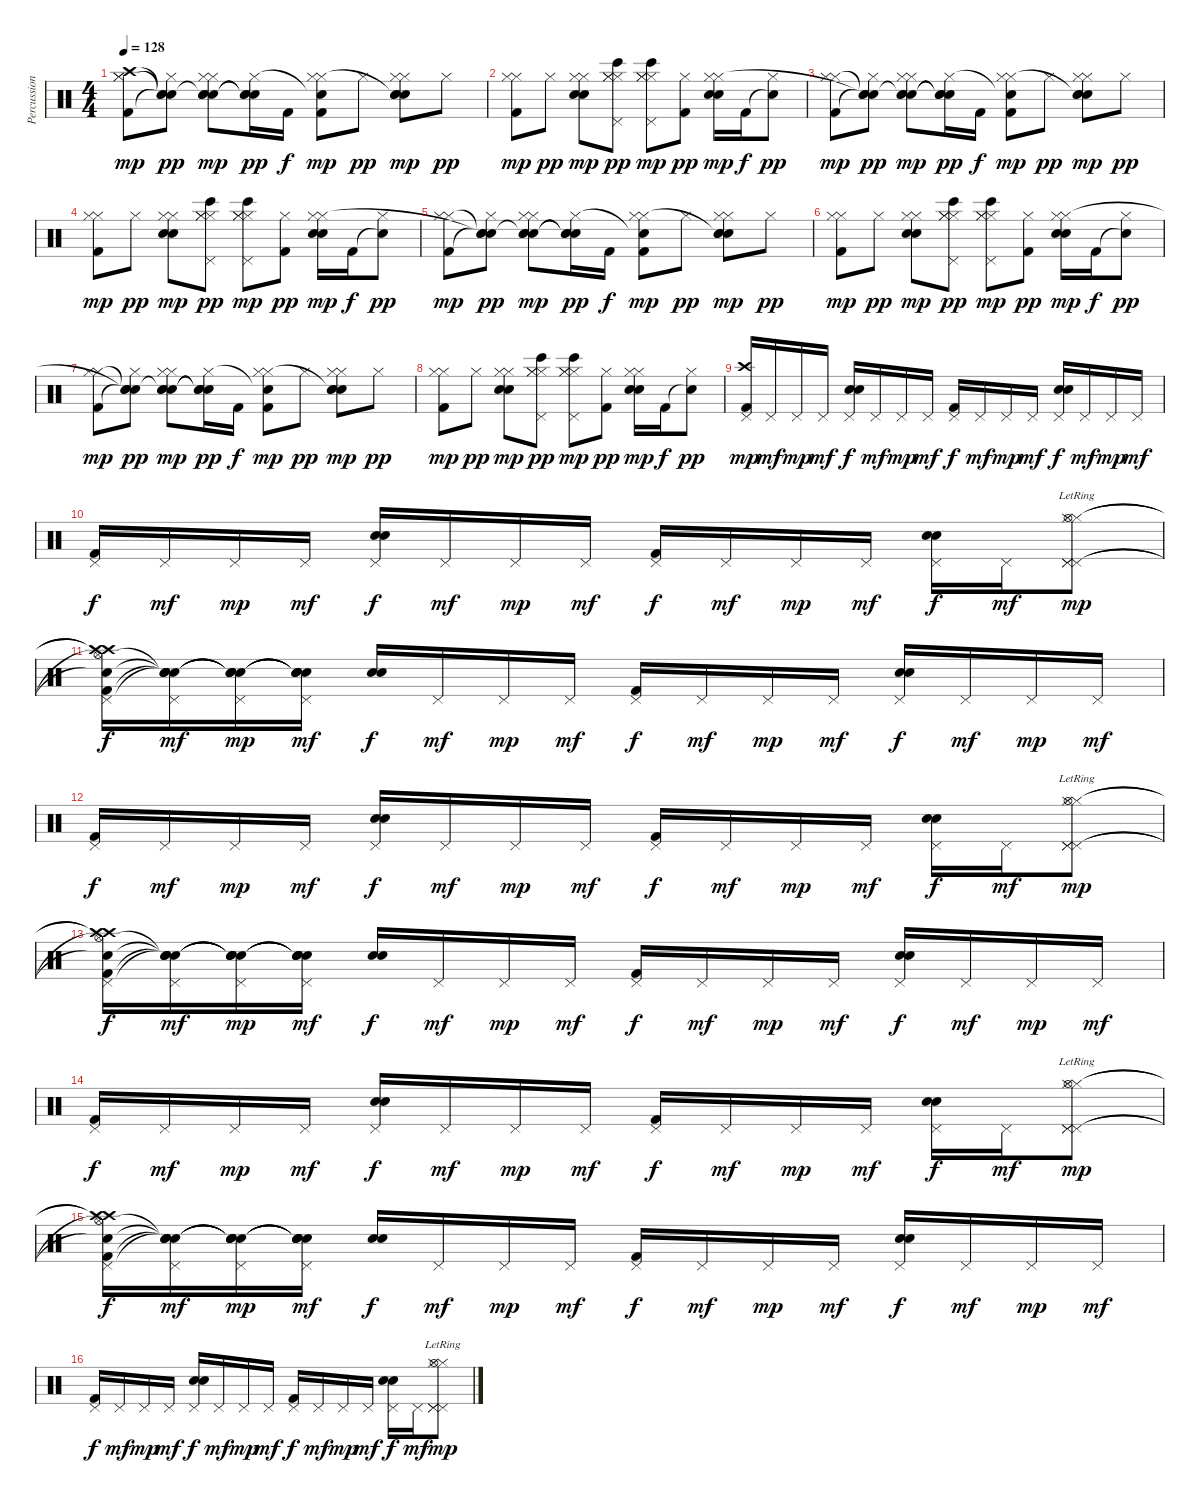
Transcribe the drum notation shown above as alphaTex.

\track ("Percussion" "Percussion") {instrument percussion}
\staff {score}
\articulation defaults
\ts (4 4)
\tempo 128
\clef neutral
\ks c
("Kick (hit) 2" "Hi-Hat (closed)" "Crash high (hit)" "Hi-Hat (closed)").8{dy mp} ("Snare (hit)"{t} "Hi-Hat (closed)" "Snare (hit)"{t} "Snare (hit)"{t}).8{dy pp} ("Electric Snare (hit)" "Snare (hit) 2" "Hi-Hat (closed)" "Snare (hit)"{t} "Hi-Hat (closed)").8{dy mp} ("Snare (hit)"{t} "Snare (hit)"{t} "Hi-Hat (closed)" "Snare (hit)"{t}).16{dy pp} "Kick (hit) 2".16{dy f} ("Kick (hit) 2" "Hi-Hat (closed)" "Snare (hit)"{t} "Hi-Hat (closed)").8{dy mp} "Hi-Hat (closed)".8{dy pp} ("Electric Snare (hit)" "Snare (hit) 2" "Hi-Hat (closed)" "Snare (hit)"{t} "Hi-Hat (closed)").8{dy mp} "Hi-Hat (closed)".8{dy pp} |
("Kick (hit) 2" "Hi-Hat (closed)" "Hi-Hat (closed)").8{dy mp} "Hi-Hat (closed)".8{dy pp} ("Electric Snare (hit)" "Snare (hit) 2" "Hi-Hat (closed)" "Hi-Hat (closed)").8{dy mp} ("Pedal Hi-Hat (hit)" "Hi-Hat (closed)" "Bongo High (hit)" "Hi-Hat (closed)" "Hi-Hat (closed)").8{dy pp} ("Pedal Hi-Hat (hit)" "Hi-Hat (closed)" "Bongo High (hit)" "Hi-Hat (closed)" "Hi-Hat (closed)").8{dy mp} ("Kick (hit) 2" "Hi-Hat (closed)").8{dy pp} ("Electric Snare (hit)" "Snare (hit) 2" "Hi-Hat (closed)" "Hi-Hat (closed)").16{dy mp} "Kick (hit) 2".16{dy f} ("Snare (hit)"{t} "Hi-Hat (closed)").8{dy pp} |
("Kick (hit) 2" "Hi-Hat (closed)" "Hi-Hat (closed)").8{dy mp} ("Snare (hit)"{t} "Hi-Hat (closed)" "Snare (hit)"{t} "Snare (hit)"{t}).8{dy pp} ("Electric Snare (hit)" "Snare (hit) 2" "Hi-Hat (closed)" "Snare (hit)"{t} "Hi-Hat (closed)").8{dy mp} ("Snare (hit)"{t} "Snare (hit)"{t} "Hi-Hat (closed)" "Snare (hit)"{t}).16{dy pp} "Kick (hit) 2".16{dy f} ("Kick (hit) 2" "Hi-Hat (closed)" "Snare (hit)"{t} "Hi-Hat (closed)").8{dy mp} "Hi-Hat (closed)".8{dy pp} ("Electric Snare (hit)" "Snare (hit) 2" "Hi-Hat (closed)" "Snare (hit)"{t} "Hi-Hat (closed)").8{dy mp} "Hi-Hat (closed)".8{dy pp} |
("Kick (hit) 2" "Hi-Hat (closed)" "Hi-Hat (closed)").8{dy mp} "Hi-Hat (closed)".8{dy pp} ("Electric Snare (hit)" "Snare (hit) 2" "Hi-Hat (closed)" "Hi-Hat (closed)").8{dy mp} ("Pedal Hi-Hat (hit)" "Hi-Hat (closed)" "Bongo High (hit)" "Hi-Hat (closed)" "Hi-Hat (closed)").8{dy pp} ("Pedal Hi-Hat (hit)" "Hi-Hat (closed)" "Bongo High (hit)" "Hi-Hat (closed)" "Hi-Hat (closed)").8{dy mp} ("Kick (hit) 2" "Hi-Hat (closed)").8{dy pp} ("Electric Snare (hit)" "Snare (hit) 2" "Hi-Hat (closed)" "Hi-Hat (closed)").16{dy mp} "Kick (hit) 2".16{dy f} ("Snare (hit)"{t} "Hi-Hat (closed)").8{dy pp} |
("Kick (hit) 2" "Hi-Hat (closed)" "Hi-Hat (closed)").8{dy mp} ("Snare (hit)"{t} "Hi-Hat (closed)" "Snare (hit)"{t} "Snare (hit)"{t}).8{dy pp} ("Electric Snare (hit)" "Snare (hit) 2" "Hi-Hat (closed)" "Snare (hit)"{t} "Hi-Hat (closed)").8{dy mp} ("Snare (hit)"{t} "Snare (hit)"{t} "Hi-Hat (closed)" "Snare (hit)"{t}).16{dy pp} "Kick (hit) 2".16{dy f} ("Kick (hit) 2" "Hi-Hat (closed)" "Snare (hit)"{t} "Hi-Hat (closed)").8{dy mp} "Hi-Hat (closed)".8{dy pp} ("Electric Snare (hit)" "Snare (hit) 2" "Hi-Hat (closed)" "Snare (hit)"{t} "Hi-Hat (closed)").8{dy mp} "Hi-Hat (closed)".8{dy pp} |
("Kick (hit) 2" "Hi-Hat (closed)" "Hi-Hat (closed)").8{dy mp} "Hi-Hat (closed)".8{dy pp} ("Electric Snare (hit)" "Snare (hit) 2" "Hi-Hat (closed)" "Hi-Hat (closed)").8{dy mp} ("Pedal Hi-Hat (hit)" "Hi-Hat (closed)" "Bongo High (hit)" "Hi-Hat (closed)" "Hi-Hat (closed)").8{dy pp} ("Pedal Hi-Hat (hit)" "Hi-Hat (closed)" "Bongo High (hit)" "Hi-Hat (closed)" "Hi-Hat (closed)").8{dy mp} ("Kick (hit) 2" "Hi-Hat (closed)").8{dy pp} ("Electric Snare (hit)" "Snare (hit) 2" "Hi-Hat (closed)" "Hi-Hat (closed)").16{dy mp} "Kick (hit) 2".16{dy f} ("Snare (hit)"{t} "Hi-Hat (closed)").8{dy pp} |
("Kick (hit) 2" "Hi-Hat (closed)" "Hi-Hat (closed)").8{dy mp} ("Snare (hit)"{t} "Hi-Hat (closed)" "Snare (hit)"{t} "Snare (hit)"{t}).8{dy pp} ("Electric Snare (hit)" "Snare (hit) 2" "Hi-Hat (closed)" "Snare (hit)"{t} "Hi-Hat (closed)").8{dy mp} ("Snare (hit)"{t} "Snare (hit)"{t} "Hi-Hat (closed)" "Snare (hit)"{t}).16{dy pp} "Kick (hit) 2".16{dy f} ("Kick (hit) 2" "Hi-Hat (closed)" "Snare (hit)"{t} "Hi-Hat (closed)").8{dy mp} "Hi-Hat (closed)".8{dy pp} ("Electric Snare (hit)" "Snare (hit) 2" "Hi-Hat (closed)" "Snare (hit)"{t} "Hi-Hat (closed)").8{dy mp} "Hi-Hat (closed)".8{dy pp} |
("Kick (hit) 2" "Hi-Hat (closed)" "Hi-Hat (closed)").8{dy mp} "Hi-Hat (closed)".8{dy pp} ("Electric Snare (hit)" "Snare (hit) 2" "Hi-Hat (closed)" "Hi-Hat (closed)").8{dy mp} ("Pedal Hi-Hat (hit)" "Hi-Hat (closed)" "Bongo High (hit)" "Hi-Hat (closed)" "Hi-Hat (closed)").8{dy pp} ("Pedal Hi-Hat (hit)" "Hi-Hat (closed)" "Bongo High (hit)" "Hi-Hat (closed)" "Hi-Hat (closed)").8{dy mp} ("Kick (hit) 2" "Hi-Hat (closed)").8{dy pp} ("Electric Snare (hit)" "Snare (hit) 2" "Hi-Hat (closed)" "Hi-Hat (closed)").16{dy mp} "Kick (hit) 2".16{dy f} ("Snare (hit)"{t} "Hi-Hat (closed)").8{dy pp} |
("Kick (hit) 2" "Pedal Hi-Hat (hit)" "Crash high (hit)").16{dy mp} "Pedal Hi-Hat (hit)".16{dy mf} "Pedal Hi-Hat (hit)".16{dy mp} "Pedal Hi-Hat (hit)".16{dy mf} ("Electric Snare (hit)" "Snare (hit) 2" "Pedal Hi-Hat (hit)").16{dy f} "Pedal Hi-Hat (hit)".16{dy mf} "Pedal Hi-Hat (hit)".16{dy mp} "Pedal Hi-Hat (hit)".16{dy mf} ("Kick (hit) 2" "Pedal Hi-Hat (hit)").16{dy f} "Pedal Hi-Hat (hit)".16{dy mf} "Pedal Hi-Hat (hit)".16{dy mp} "Pedal Hi-Hat (hit)".16{dy mf} ("Electric Snare (hit)" "Snare (hit) 2" "Pedal Hi-Hat (hit)").16{dy f} "Pedal Hi-Hat (hit)".16{dy mf} "Pedal Hi-Hat (hit)".16{dy mp} "Pedal Hi-Hat (hit)".16{dy mf} |
("Kick (hit) 2" "Pedal Hi-Hat (hit)").16{dy f} "Pedal Hi-Hat (hit)".16{dy mf} "Pedal Hi-Hat (hit)".16{dy mp} "Pedal Hi-Hat (hit)".16{dy mf} ("Electric Snare (hit)" "Snare (hit) 2" "Pedal Hi-Hat (hit)").16{dy f} "Pedal Hi-Hat (hit)".16{dy mf} "Pedal Hi-Hat (hit)".16{dy mp} "Pedal Hi-Hat (hit)".16{dy mf} ("Kick (hit) 2" "Pedal Hi-Hat (hit)").16{dy f} "Pedal Hi-Hat (hit)".16{dy mf} "Pedal Hi-Hat (hit)".16{dy mp} "Pedal Hi-Hat (hit)".16{dy mf} ("Electric Snare (hit)" "Snare (hit) 2" "Pedal Hi-Hat (hit)").16{dy f} "Pedal Hi-Hat (hit)".16{dy mf} ("Pedal Hi-Hat (hit)"{lr} "Pedal Hi-Hat (hit)"{lr} "Pedal Hi-Hat (hit)"{lr} "Hi-Hat (closed)"{lr} "Hi-Hat (closed)"{lr} "Hi-Hat (open)"{lr}).8{dy mp} |
("Kick (hit) 2" "Snare (hit)"{t} "Hi-Hat (open)"{t} "Crash high (hit)"{t} "Pedal Hi-Hat (hit)" "Crash high (hit)"{t}).16{dy f} ("Snare (hit)"{t} "Snare (hit)"{t} "Snare (hit)"{t} "Pedal Hi-Hat (hit)" "Snare (hit)"{t}).16{dy mf} ("Snare (hit)"{t} "Snare (hit)"{t} "Snare (hit)"{t} "Pedal Hi-Hat (hit)" "Snare (hit)"{t}).16{dy mp} ("Snare (hit)"{t} "Snare (hit)"{t} "Snare (hit)"{t} "Pedal Hi-Hat (hit)" "Snare (hit)"{t}).16{dy mf} ("Electric Snare (hit)" "Snare (hit) 2").16{dy f} "Pedal Hi-Hat (hit)".16{dy mf} "Pedal Hi-Hat (hit)".16{dy mp} "Pedal Hi-Hat (hit)".16{dy mf} ("Kick (hit) 2" "Pedal Hi-Hat (hit)").16{dy f} "Pedal Hi-Hat (hit)".16{dy mf} "Pedal Hi-Hat (hit)".16{dy mp} "Pedal Hi-Hat (hit)".16{dy mf} ("Electric Snare (hit)" "Snare (hit) 2" "Pedal Hi-Hat (hit)").16{dy f} "Pedal Hi-Hat (hit)".16{dy mf} "Pedal Hi-Hat (hit)".16{dy mp} "Pedal Hi-Hat (hit)".16{dy mf} |
("Kick (hit) 2" "Pedal Hi-Hat (hit)").16{dy f} "Pedal Hi-Hat (hit)".16{dy mf} "Pedal Hi-Hat (hit)".16{dy mp} "Pedal Hi-Hat (hit)".16{dy mf} ("Electric Snare (hit)" "Snare (hit) 2" "Pedal Hi-Hat (hit)").16{dy f} "Pedal Hi-Hat (hit)".16{dy mf} "Pedal Hi-Hat (hit)".16{dy mp} "Pedal Hi-Hat (hit)".16{dy mf} ("Kick (hit) 2" "Pedal Hi-Hat (hit)").16{dy f} "Pedal Hi-Hat (hit)".16{dy mf} "Pedal Hi-Hat (hit)".16{dy mp} "Pedal Hi-Hat (hit)".16{dy mf} ("Electric Snare (hit)" "Snare (hit) 2" "Pedal Hi-Hat (hit)").16{dy f} "Pedal Hi-Hat (hit)".16{dy mf} ("Pedal Hi-Hat (hit)"{lr} "Pedal Hi-Hat (hit)"{lr} "Pedal Hi-Hat (hit)"{lr} "Hi-Hat (closed)"{lr} "Hi-Hat (closed)"{lr} "Hi-Hat (open)"{lr}).8{dy mp} |
("Kick (hit) 2" "Snare (hit)"{t} "Hi-Hat (open)"{t} "Crash high (hit)"{t} "Pedal Hi-Hat (hit)" "Crash high (hit)"{t}).16{dy f} ("Snare (hit)"{t} "Snare (hit)"{t} "Snare (hit)"{t} "Pedal Hi-Hat (hit)" "Snare (hit)"{t}).16{dy mf} ("Snare (hit)"{t} "Snare (hit)"{t} "Snare (hit)"{t} "Pedal Hi-Hat (hit)" "Snare (hit)"{t}).16{dy mp} ("Snare (hit)"{t} "Snare (hit)"{t} "Snare (hit)"{t} "Pedal Hi-Hat (hit)" "Snare (hit)"{t}).16{dy mf} ("Electric Snare (hit)" "Snare (hit) 2").16{dy f} "Pedal Hi-Hat (hit)".16{dy mf} "Pedal Hi-Hat (hit)".16{dy mp} "Pedal Hi-Hat (hit)".16{dy mf} ("Kick (hit) 2" "Pedal Hi-Hat (hit)").16{dy f} "Pedal Hi-Hat (hit)".16{dy mf} "Pedal Hi-Hat (hit)".16{dy mp} "Pedal Hi-Hat (hit)".16{dy mf} ("Electric Snare (hit)" "Snare (hit) 2" "Pedal Hi-Hat (hit)").16{dy f} "Pedal Hi-Hat (hit)".16{dy mf} "Pedal Hi-Hat (hit)".16{dy mp} "Pedal Hi-Hat (hit)".16{dy mf} |
("Kick (hit) 2" "Pedal Hi-Hat (hit)").16{dy f} "Pedal Hi-Hat (hit)".16{dy mf} "Pedal Hi-Hat (hit)".16{dy mp} "Pedal Hi-Hat (hit)".16{dy mf} ("Electric Snare (hit)" "Snare (hit) 2" "Pedal Hi-Hat (hit)").16{dy f} "Pedal Hi-Hat (hit)".16{dy mf} "Pedal Hi-Hat (hit)".16{dy mp} "Pedal Hi-Hat (hit)".16{dy mf} ("Kick (hit) 2" "Pedal Hi-Hat (hit)").16{dy f} "Pedal Hi-Hat (hit)".16{dy mf} "Pedal Hi-Hat (hit)".16{dy mp} "Pedal Hi-Hat (hit)".16{dy mf} ("Electric Snare (hit)" "Snare (hit) 2" "Pedal Hi-Hat (hit)").16{dy f} "Pedal Hi-Hat (hit)".16{dy mf} ("Pedal Hi-Hat (hit)"{lr} "Pedal Hi-Hat (hit)"{lr} "Pedal Hi-Hat (hit)"{lr} "Hi-Hat (closed)"{lr} "Hi-Hat (closed)"{lr} "Hi-Hat (open)"{lr}).8{dy mp} |
("Kick (hit) 2" "Snare (hit)"{t} "Hi-Hat (open)"{t} "Crash high (hit)"{t} "Pedal Hi-Hat (hit)" "Crash high (hit)"{t}).16{dy f} ("Snare (hit)"{t} "Snare (hit)"{t} "Snare (hit)"{t} "Pedal Hi-Hat (hit)" "Snare (hit)"{t}).16{dy mf} ("Snare (hit)"{t} "Snare (hit)"{t} "Snare (hit)"{t} "Pedal Hi-Hat (hit)" "Snare (hit)"{t}).16{dy mp} ("Snare (hit)"{t} "Snare (hit)"{t} "Snare (hit)"{t} "Pedal Hi-Hat (hit)" "Snare (hit)"{t}).16{dy mf} ("Electric Snare (hit)" "Snare (hit) 2").16{dy f} "Pedal Hi-Hat (hit)".16{dy mf} "Pedal Hi-Hat (hit)".16{dy mp} "Pedal Hi-Hat (hit)".16{dy mf} ("Kick (hit) 2" "Pedal Hi-Hat (hit)").16{dy f} "Pedal Hi-Hat (hit)".16{dy mf} "Pedal Hi-Hat (hit)".16{dy mp} "Pedal Hi-Hat (hit)".16{dy mf} ("Electric Snare (hit)" "Snare (hit) 2" "Pedal Hi-Hat (hit)").16{dy f} "Pedal Hi-Hat (hit)".16{dy mf} "Pedal Hi-Hat (hit)".16{dy mp} "Pedal Hi-Hat (hit)".16{dy mf} |
("Kick (hit) 2" "Pedal Hi-Hat (hit)").16{dy f} "Pedal Hi-Hat (hit)".16{dy mf} "Pedal Hi-Hat (hit)".16{dy mp} "Pedal Hi-Hat (hit)".16{dy mf} ("Electric Snare (hit)" "Snare (hit) 2" "Pedal Hi-Hat (hit)").16{dy f} "Pedal Hi-Hat (hit)".16{dy mf} "Pedal Hi-Hat (hit)".16{dy mp} "Pedal Hi-Hat (hit)".16{dy mf} ("Kick (hit) 2" "Pedal Hi-Hat (hit)").16{dy f} "Pedal Hi-Hat (hit)".16{dy mf} "Pedal Hi-Hat (hit)".16{dy mp} "Pedal Hi-Hat (hit)".16{dy mf} ("Electric Snare (hit)" "Snare (hit) 2" "Pedal Hi-Hat (hit)").16{dy f} "Pedal Hi-Hat (hit)".16{dy mf} ("Pedal Hi-Hat (hit)"{lr} "Pedal Hi-Hat (hit)"{lr} "Pedal Hi-Hat (hit)"{lr} "Hi-Hat (closed)"{lr} "Hi-Hat (closed)"{lr} "Hi-Hat (open)"{lr}).8{dy mp}
